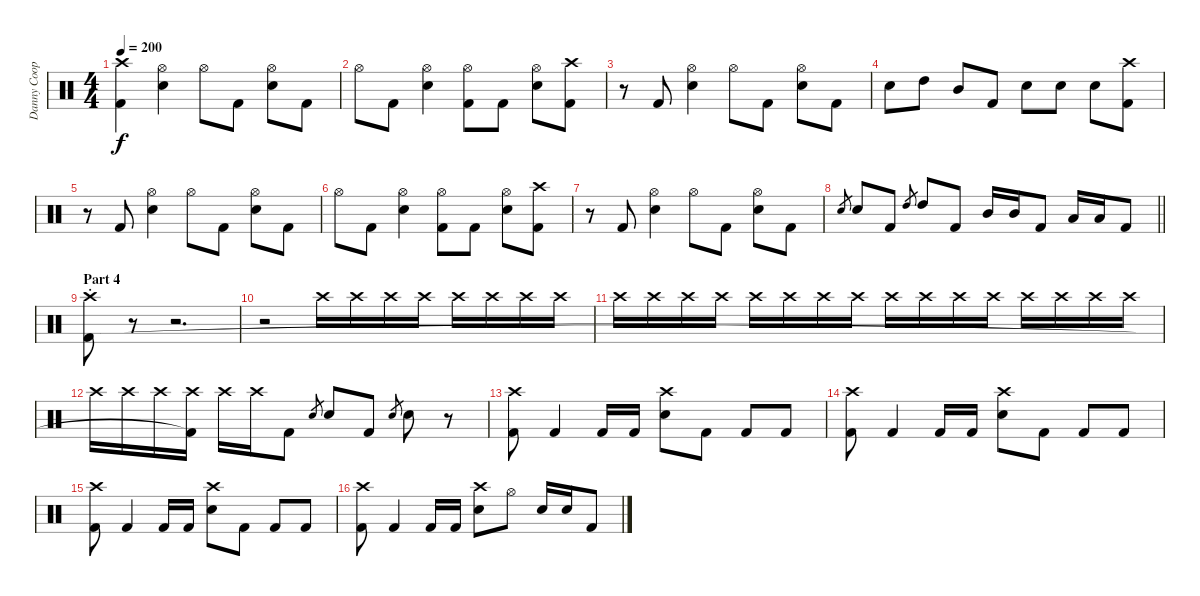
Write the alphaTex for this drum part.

\track ("Danny Cooper" "Danny Coop") {instrument percussion}
\staff {score}
\articulation defaults
\ts (4 4)
\tempo 200
\clef neutral
\ks c
("Crash high (hit)" "Kick (hit) 2").4{dy f} ("Hi-Hat (open)" "Snare (hit) 2").4 "Hi-Hat (open)".8 "Kick (hit) 2".8 ("Hi-Hat (open)" "Snare (hit) 2").8 "Kick (hit) 2".8 |
"Hi-Hat (open)".8 "Kick (hit) 2".8 ("Hi-Hat (open)" "Snare (hit) 2").4 ("Hi-Hat (open)" "Kick (hit) 2").8 "Kick (hit) 2".8 ("Hi-Hat (open)" "Snare (hit) 2").8 ("Crash high (hit)" "Kick (hit) 2").8 |
r.8 "Kick (hit) 2".8 ("Hi-Hat (open)" "Snare (hit) 2").4 "Hi-Hat (open)".8 "Kick (hit) 2".8 ("Hi-Hat (open)" "Snare (hit) 2").8 "Kick (hit) 2".8 |
"Snare (hit) 2".8 "High Tom (hit)".8 "Mid Tom (hit)".8 "Kick (hit) 2".8 "Snare (hit) 2".8 "Snare (hit) 2".8 "Snare (hit) 2".8 ("Crash high (hit)" "Kick (hit) 2").8 |
r.8 "Kick (hit) 2".8 ("Hi-Hat (open)" "Snare (hit) 2").4 "Hi-Hat (open)".8 "Kick (hit) 2".8 ("Hi-Hat (open)" "Snare (hit) 2").8 "Kick (hit) 2".8 |
"Hi-Hat (open)".8 "Kick (hit) 2".8 ("Hi-Hat (open)" "Snare (hit) 2").4 ("Hi-Hat (open)" "Kick (hit) 2").8 "Kick (hit) 2".8 ("Hi-Hat (open)" "Snare (hit) 2").8 ("Crash high (hit)" "Kick (hit) 2").8 |
r.8 "Kick (hit) 2".8 ("Hi-Hat (open)" "Snare (hit) 2").4 "Hi-Hat (open)".8 "Kick (hit) 2".8 ("Hi-Hat (open)" "Snare (hit) 2").8 "Kick (hit) 2".8 |
\barLineRight lightlight "Snare (hit) 2".8{gr} "Snare (hit) 2".8 "Kick (hit) 2".8 "High Tom (hit)".8{gr} "High Tom (hit)".8 "Kick (hit) 2".8 "Mid Tom (hit)".16 "Mid Tom (hit)".16 "Kick (hit) 2".8 "Low Tom (hit)".16 "Low Tom (hit)".16 "Kick (hit) 2".8
|
\section ("" "Part 4")
("Crash high (hit)"{st} "Kick (hit) 2"{st}).8 r.8 r.2{d volume 0} |
r.2 "Crash high (hit)".16{volume 16} "Crash high (hit)".16 "Crash high (hit)".16 "Crash high (hit)".16 "Crash high (hit)".16 "Crash high (hit)".16 "Crash high (hit)".16 "Crash high (hit)".16 |
"Crash high (hit)".16 "Crash high (hit)".16 "Crash high (hit)".16 "Crash high (hit)".16 "Crash high (hit)".16 "Crash high (hit)".16 "Crash high (hit)".16 "Crash high (hit)".16 "Crash high (hit)".16 "Crash high (hit)".16 "Crash high (hit)".16 "Crash high (hit)".16 "Crash high (hit)".16 "Crash high (hit)".16 "Crash high (hit)".16 "Crash high (hit)".16 |
"Crash high (hit)".16 "Crash high (hit)".16 "Crash high (hit)".16 ("Crash high (hit)" "Kick (hit) 2"{t}).16 "Crash high (hit)".16 "Crash high (hit)".16 "Kick (hit) 2".8 "Snare (hit) 2".8{gr} "Snare (hit) 2".8 "Kick (hit) 2".8 "Snare (hit) 2".8{gr} "Snare (hit) 2".8 r.8 |
("Crash high (hit)" "Kick (hit) 2").8 "Kick (hit) 2".4 "Kick (hit) 2".16 "Kick (hit) 2".16 ("Crash high (hit)" "Snare (hit) 2").8 "Kick (hit) 2".8 "Kick (hit) 2".8 "Kick (hit) 2".8 |
("Crash high (hit)" "Kick (hit) 2").8 "Kick (hit) 2".4 "Kick (hit) 2".16 "Kick (hit) 2".16 ("Crash high (hit)" "Snare (hit) 2").8 "Kick (hit) 2".8 "Kick (hit) 2".8 "Kick (hit) 2".8 |
("Crash high (hit)" "Kick (hit) 2").8 "Kick (hit) 2".4 "Kick (hit) 2".16 "Kick (hit) 2".16 ("Crash high (hit)" "Snare (hit) 2").8 "Kick (hit) 2".8 "Kick (hit) 2".8 "Kick (hit) 2".8 |
("Crash high (hit)" "Kick (hit) 2").8 "Kick (hit) 2".4 "Kick (hit) 2".16 "Kick (hit) 2".16 ("Crash high (hit)" "Snare (hit) 2").8 "Hi-Hat (open)".8 "Snare (hit) 2".16 "Snare (hit) 2".16 "Kick (hit) 2".8
